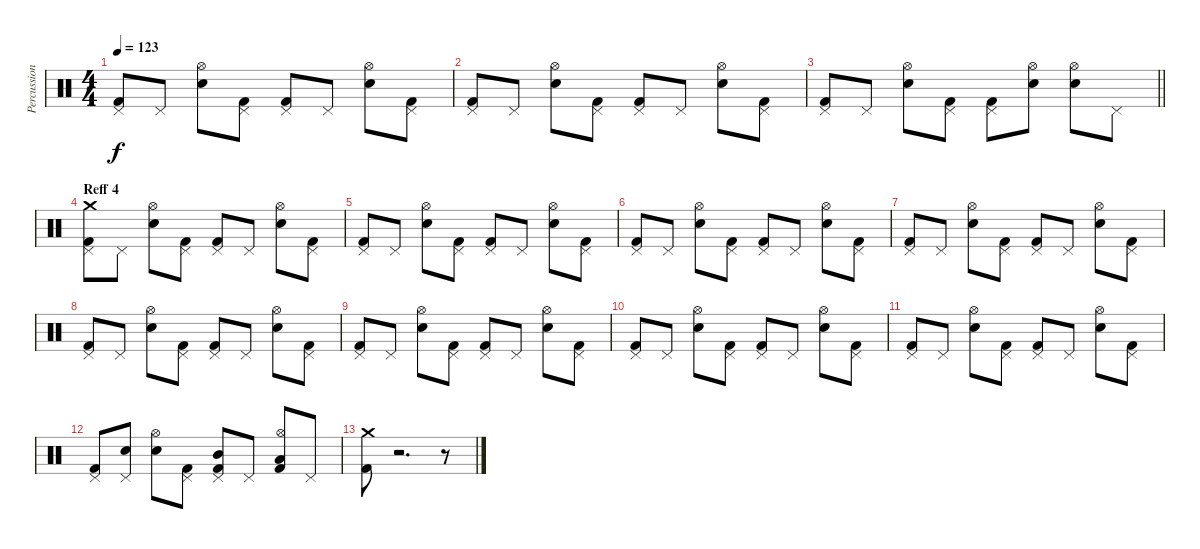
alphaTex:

\track ("Percussion 1" "Percussion") {instrument percussion}
\staff {score}
\articulation defaults
\ts (4 4)
\tempo 123
\clef neutral
\ks c
("Pedal Hi-Hat (hit)" "Kick (hit) 2").8{dy f} "Pedal Hi-Hat (hit)".8 ("Hi-Hat (open)" "Electric Snare (hit)").8 ("Pedal Hi-Hat (hit)" "Kick (hit) 2").8 ("Pedal Hi-Hat (hit)" "Kick (hit) 2").8 "Pedal Hi-Hat (hit)".8 ("Hi-Hat (open)" "Electric Snare (hit)").8 ("Pedal Hi-Hat (hit)" "Kick (hit) 2").8 |
("Pedal Hi-Hat (hit)" "Kick (hit) 2").8 "Pedal Hi-Hat (hit)".8 ("Hi-Hat (open)" "Electric Snare (hit)").8 ("Pedal Hi-Hat (hit)" "Kick (hit) 2").8 ("Pedal Hi-Hat (hit)" "Kick (hit) 2").8 "Pedal Hi-Hat (hit)".8 ("Hi-Hat (open)" "Electric Snare (hit)").8 ("Pedal Hi-Hat (hit)" "Kick (hit) 2").8 |
\barLineRight lightlight
("Pedal Hi-Hat (hit)" "Kick (hit) 2").8 "Pedal Hi-Hat (hit)".8 ("Hi-Hat (open)" "Electric Snare (hit)").8 ("Pedal Hi-Hat (hit)" "Kick (hit) 2").8 ("Pedal Hi-Hat (hit)" "Kick (hit) 2").8 ("Hi-Hat (open)" "Electric Snare (hit)").8 ("Hi-Hat (open)" "Electric Snare (hit)").8 "Pedal Hi-Hat (hit)".8 |
\section ("" "Reff 4")
("Pedal Hi-Hat (hit)" "Crash medium (hit)" "Kick (hit) 2").8 "Pedal Hi-Hat (hit)".8 ("Hi-Hat (open)" "Electric Snare (hit)").8 ("Pedal Hi-Hat (hit)" "Kick (hit) 2").8 ("Pedal Hi-Hat (hit)" "Kick (hit) 2").8 "Pedal Hi-Hat (hit)".8 ("Hi-Hat (open)" "Electric Snare (hit)").8 ("Pedal Hi-Hat (hit)" "Kick (hit) 2").8 |
("Pedal Hi-Hat (hit)" "Kick (hit) 2").8 "Pedal Hi-Hat (hit)".8 ("Hi-Hat (open)" "Electric Snare (hit)").8 ("Pedal Hi-Hat (hit)" "Kick (hit) 2").8 ("Pedal Hi-Hat (hit)" "Kick (hit) 2").8 "Pedal Hi-Hat (hit)".8 ("Hi-Hat (open)" "Electric Snare (hit)").8 ("Pedal Hi-Hat (hit)" "Kick (hit) 2").8 |
("Pedal Hi-Hat (hit)" "Kick (hit) 2").8 "Pedal Hi-Hat (hit)".8 ("Hi-Hat (open)" "Electric Snare (hit)").8 ("Pedal Hi-Hat (hit)" "Kick (hit) 2").8 ("Pedal Hi-Hat (hit)" "Kick (hit) 2").8 "Pedal Hi-Hat (hit)".8 ("Hi-Hat (open)" "Electric Snare (hit)").8 ("Pedal Hi-Hat (hit)" "Kick (hit) 2").8 |
("Pedal Hi-Hat (hit)" "Kick (hit) 2").8 "Pedal Hi-Hat (hit)".8 ("Hi-Hat (open)" "Electric Snare (hit)").8 ("Pedal Hi-Hat (hit)" "Kick (hit) 2").8 ("Pedal Hi-Hat (hit)" "Kick (hit) 2").8 "Pedal Hi-Hat (hit)".8 ("Hi-Hat (open)" "Electric Snare (hit)").8 ("Pedal Hi-Hat (hit)" "Kick (hit) 2").8 |
("Pedal Hi-Hat (hit)" "Kick (hit) 2").8 "Pedal Hi-Hat (hit)".8 ("Hi-Hat (open)" "Electric Snare (hit)").8 ("Pedal Hi-Hat (hit)" "Kick (hit) 2").8 ("Pedal Hi-Hat (hit)" "Kick (hit) 2").8 "Pedal Hi-Hat (hit)".8 ("Hi-Hat (open)" "Electric Snare (hit)").8 ("Pedal Hi-Hat (hit)" "Kick (hit) 2").8 |
("Pedal Hi-Hat (hit)" "Kick (hit) 2").8 "Pedal Hi-Hat (hit)".8 ("Hi-Hat (open)" "Electric Snare (hit)").8 ("Pedal Hi-Hat (hit)" "Kick (hit) 2").8 ("Pedal Hi-Hat (hit)" "Kick (hit) 2").8 "Pedal Hi-Hat (hit)".8 ("Hi-Hat (open)" "Electric Snare (hit)").8 ("Pedal Hi-Hat (hit)" "Kick (hit) 2").8 |
("Pedal Hi-Hat (hit)" "Kick (hit) 2").8 "Pedal Hi-Hat (hit)".8 ("Hi-Hat (open)" "Electric Snare (hit)").8 ("Pedal Hi-Hat (hit)" "Kick (hit) 2").8 ("Pedal Hi-Hat (hit)" "Kick (hit) 2").8 "Pedal Hi-Hat (hit)".8 ("Hi-Hat (open)" "Electric Snare (hit)").8 ("Pedal Hi-Hat (hit)" "Kick (hit) 2").8 |
("Pedal Hi-Hat (hit)" "Kick (hit) 2").8 "Pedal Hi-Hat (hit)".8 ("Hi-Hat (open)" "Electric Snare (hit)").8 ("Pedal Hi-Hat (hit)" "Kick (hit) 2").8 ("Pedal Hi-Hat (hit)" "Kick (hit) 2").8 "Pedal Hi-Hat (hit)".8 ("Hi-Hat (open)" "Electric Snare (hit)").8 ("Pedal Hi-Hat (hit)" "Kick (hit) 2").8 |
("Pedal Hi-Hat (hit)" "Kick (hit) 2").8 ("Pedal Hi-Hat (hit)" "Electric Snare (hit)").8 ("Hi-Hat (open)" "Electric Snare (hit)").8 ("Pedal Hi-Hat (hit)" "Kick (hit) 2").8 ("Pedal Hi-Hat (hit)" "Mid Tom (hit)" "Kick (hit) 2").8 "Pedal Hi-Hat (hit)".8 ("Hi-Hat (open)" "Low Tom (hit)" "Kick (hit) 2").8 "Pedal Hi-Hat (hit)".8 |
("Crash medium (hit)" "Kick (hit) 2").8 r.2{d} r.8
